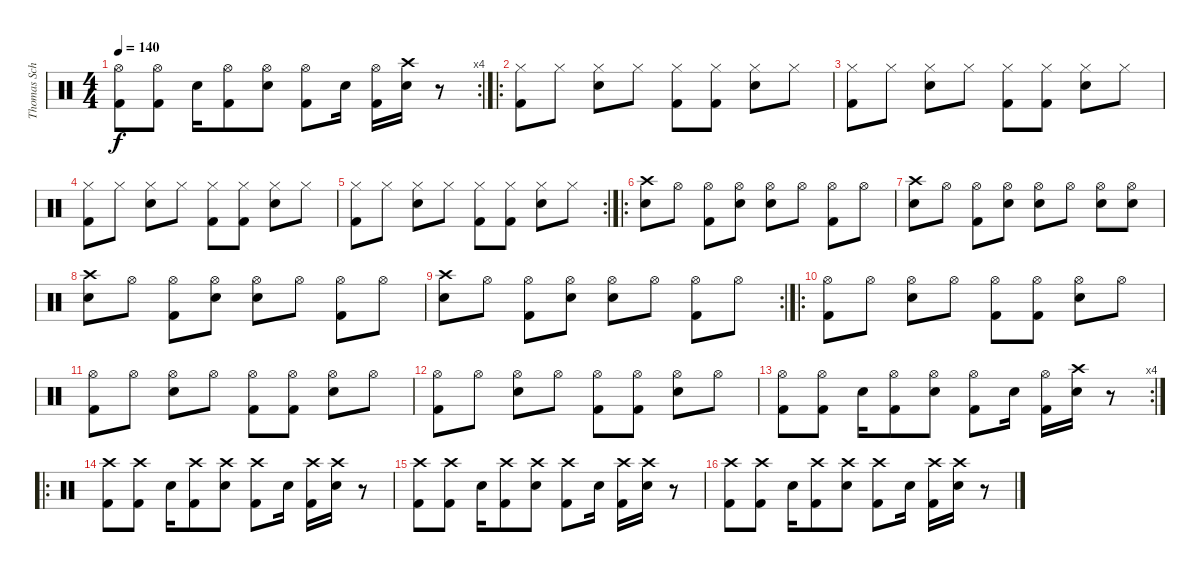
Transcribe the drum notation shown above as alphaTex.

\track ("Thomas Schnitzler" "Thomas Sch") {instrument percussion}
\staff {score}
\articulation defaults
\rc 4
\ts (4 4)
\tempo 140
\clef neutral
\ks c
("Hi-Hat (open)" "Kick (hit) 2").8{dy f} ("Hi-Hat (open)" "Kick (hit) 2").8 "Snare (hit) 2".16 ("Hi-Hat (open)" "Kick (hit) 2").8 ("Hi-Hat (open)" "Snare (hit) 2").8 ("Hi-Hat (open)" "Kick (hit) 2").8 "Snare (hit) 2".16 ("Hi-Hat (open)" "Kick (hit) 2").16 ("Crash high (hit)" "Snare (hit) 2").16 r.8 |
\ro
("Hi-Hat (closed)" "Kick (hit) 2").8 "Hi-Hat (closed)".8 ("Hi-Hat (closed)" "Snare (hit) 2").8 "Hi-Hat (closed)".8 ("Hi-Hat (closed)" "Kick (hit) 2").8 ("Hi-Hat (closed)" "Kick (hit) 2").8 ("Hi-Hat (closed)" "Snare (hit) 2").8 "Hi-Hat (closed)".8 |
("Hi-Hat (closed)" "Kick (hit) 2").8 "Hi-Hat (closed)".8 ("Hi-Hat (closed)" "Snare (hit) 2").8 "Hi-Hat (closed)".8 ("Hi-Hat (closed)" "Kick (hit) 2").8 ("Hi-Hat (closed)" "Kick (hit) 2").8 ("Hi-Hat (closed)" "Snare (hit) 2").8 "Hi-Hat (closed)".8 |
("Hi-Hat (closed)" "Kick (hit) 2").8 "Hi-Hat (closed)".8 ("Hi-Hat (closed)" "Snare (hit) 2").8 "Hi-Hat (closed)".8 ("Hi-Hat (closed)" "Kick (hit) 2").8 ("Hi-Hat (closed)" "Kick (hit) 2").8 ("Hi-Hat (closed)" "Snare (hit) 2").8 "Hi-Hat (closed)".8 |
\rc 2
("Hi-Hat (closed)" "Kick (hit) 2").8 "Hi-Hat (closed)".8 ("Hi-Hat (closed)" "Snare (hit) 2").8 "Hi-Hat (closed)".8 ("Hi-Hat (closed)" "Kick (hit) 2").8 ("Hi-Hat (closed)" "Kick (hit) 2").8 ("Hi-Hat (closed)" "Snare (hit) 2").8 "Hi-Hat (closed)".8 |
\ro
("Crash high (hit)" "Snare (hit) 2").8 "Hi-Hat (open)".8 ("Hi-Hat (open)" "Kick (hit) 2").8 ("Hi-Hat (open)" "Snare (hit) 2").8 ("Hi-Hat (open)" "Snare (hit) 2").8 "Hi-Hat (open)".8 ("Hi-Hat (open)" "Kick (hit) 2").8 "Hi-Hat (open)".8 |
("Crash high (hit)" "Snare (hit) 2").8 "Hi-Hat (open)".8 ("Hi-Hat (open)" "Kick (hit) 2").8 ("Hi-Hat (open)" "Snare (hit) 2").8 ("Hi-Hat (open)" "Snare (hit) 2").8 "Hi-Hat (open)".8 ("Hi-Hat (open)" "Snare (hit) 2").8 ("Hi-Hat (open)" "Snare (hit) 2").8 |
("Crash high (hit)" "Snare (hit) 2").8 "Hi-Hat (open)".8 ("Hi-Hat (open)" "Kick (hit) 2").8 ("Hi-Hat (open)" "Snare (hit) 2").8 ("Hi-Hat (open)" "Snare (hit) 2").8 "Hi-Hat (open)".8 ("Hi-Hat (open)" "Kick (hit) 2").8 "Hi-Hat (open)".8 |
\rc 2
("Crash high (hit)" "Snare (hit) 2").8 "Hi-Hat (open)".8 ("Hi-Hat (open)" "Kick (hit) 2").8 ("Hi-Hat (open)" "Snare (hit) 2").8 ("Hi-Hat (open)" "Snare (hit) 2").8 "Hi-Hat (open)".8 ("Hi-Hat (open)" "Kick (hit) 2").8 "Hi-Hat (open)".8 |
\ro
("Hi-Hat (open)" "Kick (hit) 2").8 "Hi-Hat (open)".8 ("Hi-Hat (open)" "Snare (hit) 2").8 "Hi-Hat (open)".8 ("Hi-Hat (open)" "Kick (hit) 2").8 ("Hi-Hat (open)" "Kick (hit) 2").8 ("Hi-Hat (open)" "Snare (hit) 2").8 "Hi-Hat (open)".8 |
("Hi-Hat (open)" "Kick (hit) 2").8 "Hi-Hat (open)".8 ("Hi-Hat (open)" "Snare (hit) 2").8 "Hi-Hat (open)".8 ("Hi-Hat (open)" "Kick (hit) 2").8 ("Hi-Hat (open)" "Kick (hit) 2").8 ("Hi-Hat (open)" "Snare (hit) 2").8 "Hi-Hat (open)".8 |
("Hi-Hat (open)" "Kick (hit) 2").8 "Hi-Hat (open)".8 ("Hi-Hat (open)" "Snare (hit) 2").8 "Hi-Hat (open)".8 ("Hi-Hat (open)" "Kick (hit) 2").8 ("Hi-Hat (open)" "Kick (hit) 2").8 ("Hi-Hat (open)" "Snare (hit) 2").8 "Hi-Hat (open)".8 |
\rc 4
("Hi-Hat (open)" "Kick (hit) 2").8 ("Hi-Hat (open)" "Kick (hit) 2").8 "Snare (hit) 2".16 ("Hi-Hat (open)" "Kick (hit) 2").8 ("Hi-Hat (open)" "Snare (hit) 2").8 ("Hi-Hat (open)" "Kick (hit) 2").8 "Snare (hit) 2".16 ("Hi-Hat (open)" "Kick (hit) 2").16 ("Crash high (hit)" "Snare (hit) 2").16 r.8 |
\ro
("Crash high (hit)" "Kick (hit) 2").8 ("Crash high (hit)" "Kick (hit) 2").8 "Snare (hit) 2".16 ("Crash high (hit)" "Kick (hit) 2").8 ("Crash high (hit)" "Snare (hit) 2").8 ("Crash high (hit)" "Kick (hit) 2").8 "Snare (hit) 2".16 ("Crash high (hit)" "Kick (hit) 2").16 ("Crash high (hit)" "Snare (hit) 2").16 r.8 |
("Crash high (hit)" "Kick (hit) 2").8 ("Crash high (hit)" "Kick (hit) 2").8 "Snare (hit) 2".16 ("Crash high (hit)" "Kick (hit) 2").8 ("Crash high (hit)" "Snare (hit) 2").8 ("Crash high (hit)" "Kick (hit) 2").8 "Snare (hit) 2".16 ("Crash high (hit)" "Kick (hit) 2").16 ("Crash high (hit)" "Snare (hit) 2").16 r.8 |
("Crash high (hit)" "Kick (hit) 2").8 ("Crash high (hit)" "Kick (hit) 2").8 "Snare (hit) 2".16 ("Crash high (hit)" "Kick (hit) 2").8 ("Crash high (hit)" "Snare (hit) 2").8 ("Crash high (hit)" "Kick (hit) 2").8 "Snare (hit) 2".16 ("Crash high (hit)" "Kick (hit) 2").16 ("Crash high (hit)" "Snare (hit) 2").16 r.8
